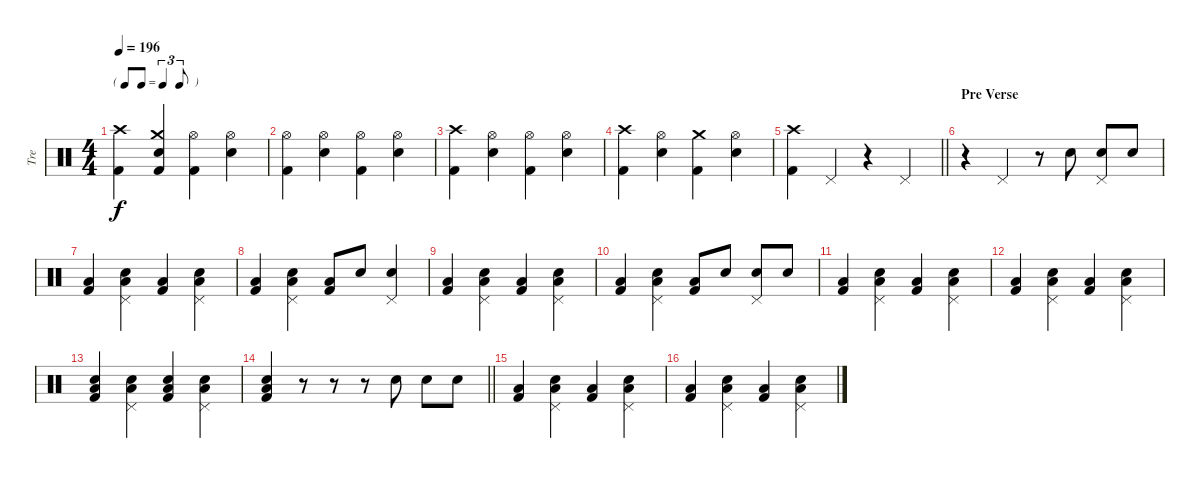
\track ("Tre" "Tre") {instrument percussion}
\staff {score}
\articulation defaults
\ts (4 4)
\tf triplet8th
\tempo 196
\clef neutral
\ks c
("Crash high (hit)" "Kick (hit) 2").4{dy f} ("Crash medium (hit)" "Snare (hit) 2" "Kick (hit) 2").4 ("Hi-Hat (open)" "Kick (hit) 2").4 ("Hi-Hat (open)" "Snare (hit) 2").4 |
("Hi-Hat (open)" "Kick (hit) 2").4 ("Hi-Hat (open)" "Snare (hit) 2").4 ("Hi-Hat (open)" "Kick (hit) 2").4 ("Hi-Hat (open)" "Snare (hit) 2").4 |
("Crash high (hit)" "Kick (hit) 2").4 ("Hi-Hat (open)" "Snare (hit) 2").4 ("Hi-Hat (open)" "Kick (hit) 2").4 ("Hi-Hat (open)" "Snare (hit) 2").4 |
("Crash high (hit)" "Kick (hit) 2").4 ("Hi-Hat (open)" "Snare (hit) 2").4 ("Crash medium (hit)" "Kick (hit) 2").4 ("Hi-Hat (open)" "Snare (hit) 2").4 |
\barLineRight lightlight
("Crash high (hit)" "Kick (hit) 2").4 "Pedal Hi-Hat (hit)".4 r.4 "Pedal Hi-Hat (hit)".4 |
\section ("" "Pre Verse")
r.4 "Pedal Hi-Hat (hit)".4 r.8 "Snare (hit) 2".8 ("Snare (hit) 2" "Pedal Hi-Hat (hit)").8 "Snare (hit) 2".8 |
("Low Floor Tom (hit)" "Kick (hit) 2").4 ("Snare (hit) 2" "Low Floor Tom (hit)" "Pedal Hi-Hat (hit)").4 ("Low Floor Tom (hit)" "Kick (hit) 2").4 ("Snare (hit) 2" "Low Floor Tom (hit)" "Pedal Hi-Hat (hit)").4 |
("Low Floor Tom (hit)" "Kick (hit) 2").4 ("Snare (hit) 2" "Low Floor Tom (hit)" "Pedal Hi-Hat (hit)").4 ("Low Floor Tom (hit)" "Kick (hit) 2").8 "Snare (hit) 2".8 ("Snare (hit) 2" "Pedal Hi-Hat (hit)").4 |
("Low Floor Tom (hit)" "Kick (hit) 2").4 ("Snare (hit) 2" "Low Floor Tom (hit)" "Pedal Hi-Hat (hit)").4 ("Low Floor Tom (hit)" "Kick (hit) 2").4 ("Snare (hit) 2" "Low Floor Tom (hit)" "Pedal Hi-Hat (hit)").4 |
("Low Floor Tom (hit)" "Kick (hit) 2").4 ("Snare (hit) 2" "Low Floor Tom (hit)" "Pedal Hi-Hat (hit)").4 ("Low Floor Tom (hit)" "Kick (hit) 2").8 "Snare (hit) 2".8 ("Snare (hit) 2" "Pedal Hi-Hat (hit)").8 "Snare (hit) 2".8 |
("Low Floor Tom (hit)" "Kick (hit) 2").4 ("Snare (hit) 2" "Low Floor Tom (hit)" "Pedal Hi-Hat (hit)").4 ("Low Floor Tom (hit)" "Kick (hit) 2").4 ("Snare (hit) 2" "Low Floor Tom (hit)" "Pedal Hi-Hat (hit)").4 |
("Low Floor Tom (hit)" "Kick (hit) 2").4 ("Snare (hit) 2" "Low Floor Tom (hit)" "Pedal Hi-Hat (hit)").4 ("Low Floor Tom (hit)" "Kick (hit) 2").4 ("Snare (hit) 2" "Low Floor Tom (hit)" "Pedal Hi-Hat (hit)").4 |
("Snare (hit) 2" "Low Floor Tom (hit)" "Kick (hit) 2").4 ("Snare (hit) 2" "Low Floor Tom (hit)" "Pedal Hi-Hat (hit)").4 ("Snare (hit) 2" "Low Floor Tom (hit)" "Kick (hit) 2").4 ("Snare (hit) 2" "Low Floor Tom (hit)" "Pedal Hi-Hat (hit)").4 |
\barLineRight lightlight
("Snare (hit) 2" "Low Floor Tom (hit)" "Kick (hit) 2").4 r.8 r.8 r.8 "Snare (hit) 2".8 "Snare (hit) 2".8 "Snare (hit) 2".8 |
("Low Floor Tom (hit)" "Kick (hit) 2").4 ("Snare (hit) 2" "Low Floor Tom (hit)" "Pedal Hi-Hat (hit)").4 ("Low Floor Tom (hit)" "Kick (hit) 2").4 ("Snare (hit) 2" "Low Floor Tom (hit)" "Pedal Hi-Hat (hit)").4 |
("Low Floor Tom (hit)" "Kick (hit) 2").4 ("Snare (hit) 2" "Low Floor Tom (hit)" "Pedal Hi-Hat (hit)").4 ("Low Floor Tom (hit)" "Kick (hit) 2").4 ("Snare (hit) 2" "Low Floor Tom (hit)" "Pedal Hi-Hat (hit)").4
